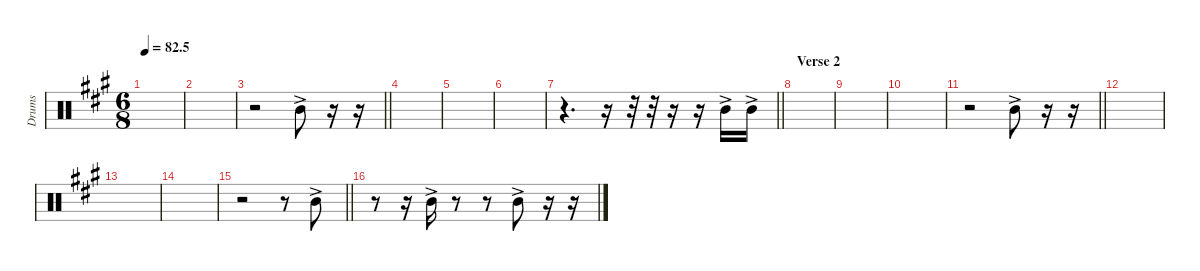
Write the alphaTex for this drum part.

\defaultSystemsLayout 4
\hideDynamics
\bracketExtendMode nobrackets
\otherSystemsTrackNameOrientation horizontal
\track ("Tom 02" "Drums") {instrument percussion}
\staff {score}
\articulation defaults
\ts (6 8)
\tempo
82.5
\accidentals auto
\clef neutral
\ottava regular
\simile none
\scale
0.333333
\ks a
|
\scale
0.333333 |
\scale
0.333333
\barLineRight lightlight
r.2 "Mid Tom (hit)"{ac acc forcenatural}.8 r.16 r.16 |
\scale
0.333333 |
\scale
0.333333 |
\scale
0.333333 |
\scale
0.333333
\barLineRight lightlight
r.4{d} r.16 r.32 r.32 r.16 r.16 "Mid Tom (hit)"{ac acc forcenatural}.16 "Mid Tom (hit)"{ac acc forcenatural}.16 |
\section ("" "Verse 2")
\scale
0.333333 |
\scale
0.333333 |
\scale
0.333333 |
\scale
0.333333
\barLineRight lightlight
r.2 "Mid Tom (hit)"{ac acc forcenatural}.8 r.16 r.16 |
\scale
0.333333 |
\scale
0.333333 |
\scale
0.333333 |
\scale
0.333333
\barLineRight lightlight
r.2 r.8 "Mid Tom (hit)"{ac acc forcenatural}.8 |
\scale
0.333333 r.8 r.16 "Mid Tom (hit)"{ac acc forcenatural}.16 r.8 r.8 "Mid Tom (hit)"{ac acc forcenatural}.8 r.16 r.16
